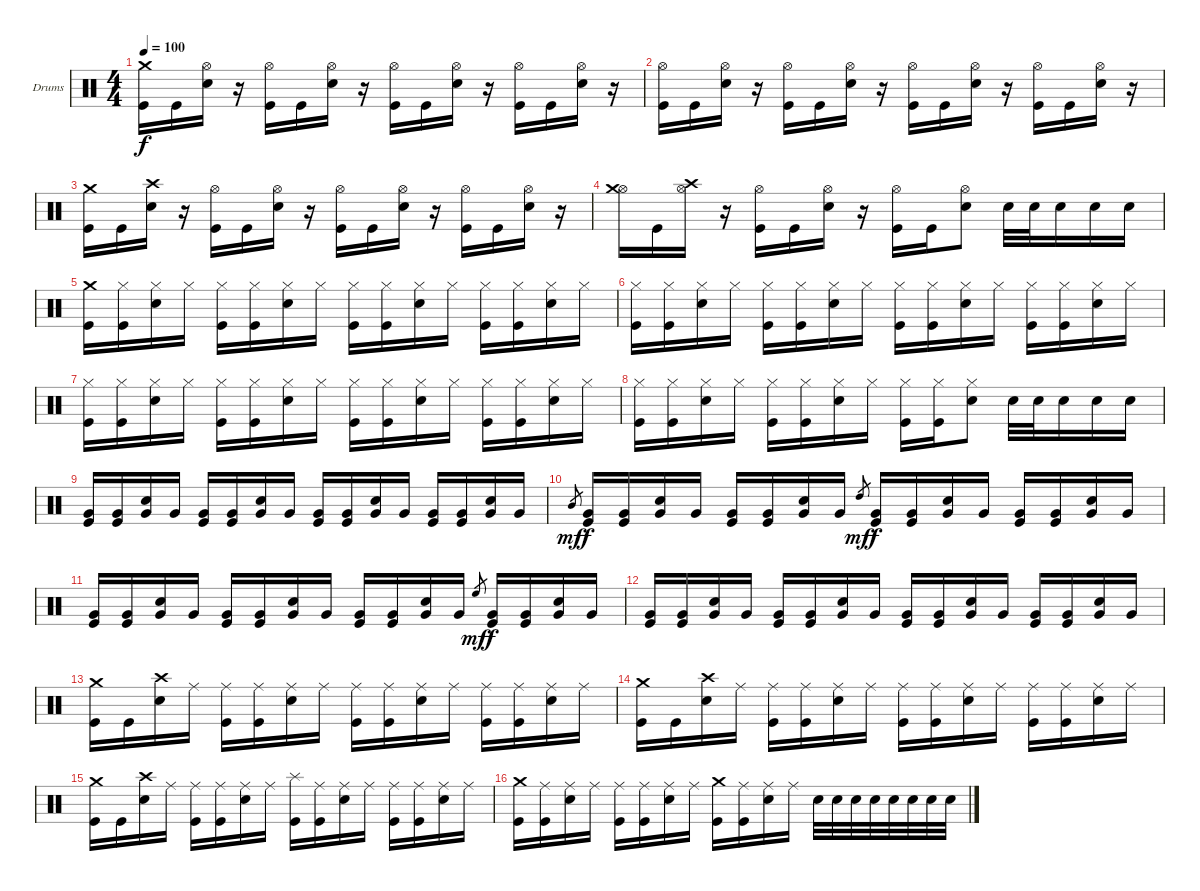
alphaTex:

\bracketExtendMode groupsimilarinstruments
\firstSystemTrackNameOrientation horizontal
\otherSystemsTrackNameOrientation horizontal
\track ("Drumkit" "Drums") {instrument percussion}
\staff {score}
\articulation defaults
\ts (4 4)
\tempo 100
\clef neutral
\ks c
("Crash medium (hit)" "Kick (hit)").16{dy f} "Kick (hit)".16 ("Hi-Hat (open)" "Snare (hit) 2").16 r.16 ("Hi-Hat (open)" "Kick (hit)").16 "Kick (hit)".16 ("Hi-Hat (open)" "Snare (hit) 2").16 r.16 ("Hi-Hat (open)" "Kick (hit)").16 "Kick (hit)".16 ("Hi-Hat (open)" "Snare (hit) 2").16 r.16 ("Hi-Hat (open)" "Kick (hit)").16 "Kick (hit)".16 ("Hi-Hat (open)" "Snare (hit) 2").16 r.16 |
("Hi-Hat (open)" "Kick (hit)").16 "Kick (hit)".16 ("Hi-Hat (open)" "Snare (hit) 2").16 r.16 ("Hi-Hat (open)" "Kick (hit)").16 "Kick (hit)".16 ("Hi-Hat (open)" "Snare (hit) 2").16 r.16 ("Hi-Hat (open)" "Kick (hit)").16 "Kick (hit)".16 ("Hi-Hat (open)" "Snare (hit) 2").16 r.16 ("Hi-Hat (open)" "Kick (hit)").16 "Kick (hit)".16 ("Hi-Hat (open)" "Snare (hit) 2").16 r.16 |
("Crash medium (hit)" "Kick (hit)").16 "Kick (hit)".16 ("Crash high (hit)" "Snare (hit) 2").16 r.16 ("Hi-Hat (open)" "Kick (hit)").16 "Kick (hit)".16 ("Hi-Hat (open)" "Snare (hit) 2").16 r.16 ("Hi-Hat (open)" "Kick (hit)").16 "Kick (hit)".16 ("Hi-Hat (open)" "Snare (hit) 2").16 r.16 ("Hi-Hat (open)" "Kick (hit)").16 "Kick (hit)".16 ("Hi-Hat (open)" "Snare (hit) 2").16 r.16 |
("Hi-Hat (open)" "Crash medium (hit)").16 "Kick (hit)".16 ("Hi-Hat (open)" "Crash high (hit)").16 r.16 ("Hi-Hat (open)" "Kick (hit)").16 "Kick (hit)".16 ("Hi-Hat (open)" "Snare (hit) 2").16 r.16 ("Hi-Hat (open)" "Kick (hit)").16 "Kick (hit)".16 ("Hi-Hat (open)" "Snare (hit) 2").8 "Snare (hit) 2".32 "Snare (hit) 2".32 "Snare (hit) 2".16 "Snare (hit) 2".16 "Snare (hit) 2".16 |
("Kick (hit)" "Crash medium (hit)").16 ("Kick (hit)" "Hi-Hat (closed)").16 ("Snare (hit) 2" "Hi-Hat (closed)").16 "Hi-Hat (closed)".16 ("Kick (hit)" "Hi-Hat (closed)").16 ("Kick (hit)" "Hi-Hat (closed)").16 ("Snare (hit) 2" "Hi-Hat (closed)").16 "Hi-Hat (closed)".16 ("Kick (hit)" "Hi-Hat (closed)").16 ("Kick (hit)" "Hi-Hat (closed)").16 ("Snare (hit) 2" "Hi-Hat (closed)").16 "Hi-Hat (closed)".16 ("Kick (hit)" "Hi-Hat (closed)").16 ("Kick (hit)" "Hi-Hat (closed)").16 ("Snare (hit) 2" "Hi-Hat (closed)").16 "Hi-Hat (closed)".16 |
("Kick (hit)" "Hi-Hat (closed)").16 ("Kick (hit)" "Hi-Hat (closed)").16 ("Snare (hit) 2" "Hi-Hat (closed)").16 "Hi-Hat (closed)".16 ("Kick (hit)" "Hi-Hat (closed)").16 ("Kick (hit)" "Hi-Hat (closed)").16 ("Snare (hit) 2" "Hi-Hat (closed)").16 "Hi-Hat (closed)".16 ("Kick (hit)" "Hi-Hat (closed)").16 ("Kick (hit)" "Hi-Hat (closed)").16 ("Snare (hit) 2" "Hi-Hat (closed)").16 "Hi-Hat (closed)".16 ("Kick (hit)" "Hi-Hat (closed)").16 ("Kick (hit)" "Hi-Hat (closed)").16 ("Snare (hit) 2" "Hi-Hat (closed)").16 "Hi-Hat (closed)".16 |
("Kick (hit)" "Hi-Hat (closed)").16 ("Kick (hit)" "Hi-Hat (closed)").16 ("Snare (hit) 2" "Hi-Hat (closed)").16 "Hi-Hat (closed)".16 ("Kick (hit)" "Hi-Hat (closed)").16 ("Kick (hit)" "Hi-Hat (closed)").16 ("Snare (hit) 2" "Hi-Hat (closed)").16 "Hi-Hat (closed)".16 ("Kick (hit)" "Hi-Hat (closed)").16 ("Kick (hit)" "Hi-Hat (closed)").16 ("Snare (hit) 2" "Hi-Hat (closed)").16 "Hi-Hat (closed)".16 ("Kick (hit)" "Hi-Hat (closed)").16 ("Kick (hit)" "Hi-Hat (closed)").16 ("Snare (hit) 2" "Hi-Hat (closed)").16 "Hi-Hat (closed)".16 |
("Kick (hit)" "Hi-Hat (closed)").16 ("Kick (hit)" "Hi-Hat (closed)").16 ("Snare (hit) 2" "Hi-Hat (closed)").16 "Hi-Hat (closed)".16 ("Kick (hit)" "Hi-Hat (closed)").16 ("Kick (hit)" "Hi-Hat (closed)").16 ("Snare (hit) 2" "Hi-Hat (closed)").16 "Hi-Hat (closed)".16 ("Kick (hit)" "Hi-Hat (closed)").16 ("Kick (hit)" "Hi-Hat (closed)").16 ("Snare (hit) 2" "Hi-Hat (closed)").8 "Snare (hit) 2".32 "Snare (hit) 2".32 "Snare (hit) 2".16 "Snare (hit) 2".16 "Snare (hit) 2".16 |
("Kick (hit)" "Very Low Tom (hit)").16 ("Kick (hit)" "Very Low Tom (hit)").16 ("Snare (hit) 2" "Very Low Tom (hit)").16 "Very Low Tom (hit)".16 ("Kick (hit)" "Very Low Tom (hit)").16 ("Kick (hit)" "Very Low Tom (hit)").16 ("Snare (hit) 2" "Very Low Tom (hit)").16 "Very Low Tom (hit)".16 ("Kick (hit)" "Very Low Tom (hit)").16 ("Kick (hit)" "Very Low Tom (hit)").16 ("Snare (hit) 2" "Very Low Tom (hit)").16 "Very Low Tom (hit)".16 ("Kick (hit)" "Very Low Tom (hit)").16 ("Kick (hit)" "Very Low Tom (hit)").16 ("Snare (hit) 2" "Very Low Tom (hit)").16 "Very Low Tom (hit)".16 |
"Mid Tom (hit)".8{gr dy mf} ("Kick (hit)" "Very Low Tom (hit)").16{dy f} ("Kick (hit)" "Very Low Tom (hit)").16 ("Snare (hit) 2" "Very Low Tom (hit)").16 "Very Low Tom (hit)".16 ("Kick (hit)" "Very Low Tom (hit)").16 ("Kick (hit)" "Very Low Tom (hit)").16 ("Snare (hit) 2" "Very Low Tom (hit)").16 "Very Low Tom (hit)".16 "High Tom (hit)".8{gr dy mf} ("Kick (hit)" "Very Low Tom (hit)").16{dy f} ("Kick (hit)" "Very Low Tom (hit)").16 ("Snare (hit) 2" "Very Low Tom (hit)").16 "Very Low Tom (hit)".16 ("Kick (hit)" "Very Low Tom (hit)").16 ("Kick (hit)" "Very Low Tom (hit)").16 ("Snare (hit) 2" "Very Low Tom (hit)").16 "Very Low Tom (hit)".16 |
("Kick (hit)" "Very Low Tom (hit)").16 ("Kick (hit)" "Very Low Tom (hit)").16 ("Snare (hit) 2" "Very Low Tom (hit)").16 "Very Low Tom (hit)".16 ("Kick (hit)" "Very Low Tom (hit)").16 ("Kick (hit)" "Very Low Tom (hit)").16 ("Snare (hit) 2" "Very Low Tom (hit)").16 "Very Low Tom (hit)".16 ("Kick (hit)" "Very Low Tom (hit)").16 ("Kick (hit)" "Very Low Tom (hit)").16 ("Snare (hit) 2" "Very Low Tom (hit)").16 "Very Low Tom (hit)".16 "High Floor Tom (hit)".8{gr dy mf} ("Kick (hit)" "Very Low Tom (hit)").16{dy f} ("Kick (hit)" "Very Low Tom (hit)").16 ("Snare (hit) 2" "Very Low Tom (hit)").16 "Very Low Tom (hit)".16 |
("Kick (hit)" "Very Low Tom (hit)").16 ("Kick (hit)" "Very Low Tom (hit)").16 ("Snare (hit) 2" "Very Low Tom (hit)").16 "Very Low Tom (hit)".16 ("Kick (hit)" "Very Low Tom (hit)").16 ("Kick (hit)" "Very Low Tom (hit)").16 ("Snare (hit) 2" "Very Low Tom (hit)").16 "Very Low Tom (hit)".16 ("Kick (hit)" "Very Low Tom (hit)").16 ("Kick (hit)" "Very Low Tom (hit)").16 ("Snare (hit) 2" "Very Low Tom (hit)").16 "Very Low Tom (hit)".16 ("Kick (hit)" "Very Low Tom (hit)").16 ("Kick (hit)" "Very Low Tom (hit)").16 ("Snare (hit) 2" "Very Low Tom (hit)").16 "Very Low Tom (hit)".16 |
("Crash medium (hit)" "Kick (hit)").16 "Kick (hit)".16 ("Crash high (hit)" "Snare (hit) 2").16 "Ride (middle)".16 ("Ride (middle)" "Kick (hit)").16 ("Ride (middle)" "Kick (hit)").16 ("Ride (middle)" "Snare (hit) 2").16 "Ride (middle)".16 ("Ride (middle)" "Kick (hit)").16 ("Ride (middle)" "Kick (hit)").16 ("Ride (middle)" "Snare (hit) 2").16 "Ride (middle)".16 ("Ride (middle)" "Kick (hit)").16 ("Ride (middle)" "Kick (hit)").16 ("Ride (middle)" "Snare (hit) 2").16 "Ride (middle)".16 |
("Crash medium (hit)" "Kick (hit)").16 "Kick (hit)".16 ("Crash high (hit)" "Snare (hit) 2").16 "Ride (middle)".16 ("Ride (middle)" "Kick (hit)").16 ("Ride (middle)" "Kick (hit)").16 ("Ride (middle)" "Snare (hit) 2").16 "Ride (middle)".16 ("Ride (middle)" "Kick (hit)").16 ("Ride (middle)" "Kick (hit)").16 ("Ride (middle)" "Snare (hit) 2").16 "Ride (middle)".16 ("Ride (middle)" "Kick (hit)").16 ("Ride (middle)" "Kick (hit)").16 ("Ride (middle)" "Snare (hit) 2").16 "Ride (middle)".16 |
("Crash medium (hit)" "Kick (hit)").16 "Kick (hit)".16 ("Crash high (hit)" "Snare (hit) 2").16 "Ride (middle)".16 ("Ride (middle)" "Kick (hit)").16 ("Ride (middle)" "Kick (hit)").16 ("Ride (middle)" "Snare (hit) 2").16 "Ride (middle)".16 ("Splash (hit)" "Kick (hit)").16 ("Ride (middle)" "Kick (hit)").16 ("Ride (middle)" "Snare (hit) 2").16 "Ride (middle)".16 ("Ride (middle)" "Kick (hit)").16 ("Ride (middle)" "Kick (hit)").16 ("Ride (middle)" "Snare (hit) 2").16 "Ride (middle)".16 |
("Crash medium (hit)" "Kick (hit)").16 ("Ride (middle)" "Kick (hit)").16 ("Ride (middle)" "Snare (hit) 2").16 "Ride (middle)".16 ("Ride (middle)" "Kick (hit)").16 ("Ride (middle)" "Kick (hit)").16 ("Ride (middle)" "Snare (hit) 2").16 "Ride (middle)".16 ("Crash medium (hit)" "Kick (hit)").16 ("Ride (middle)" "Kick (hit)").16 ("Ride (middle)" "Snare (hit) 2").16 "Ride (middle)".16 "Snare (hit) 2".32 "Snare (hit) 2".32 "Snare (hit) 2".32 "Snare (hit) 2".32 "Snare (hit) 2".32 "Snare (hit) 2".32 "Snare (hit) 2".32 "Snare (hit) 2".32
